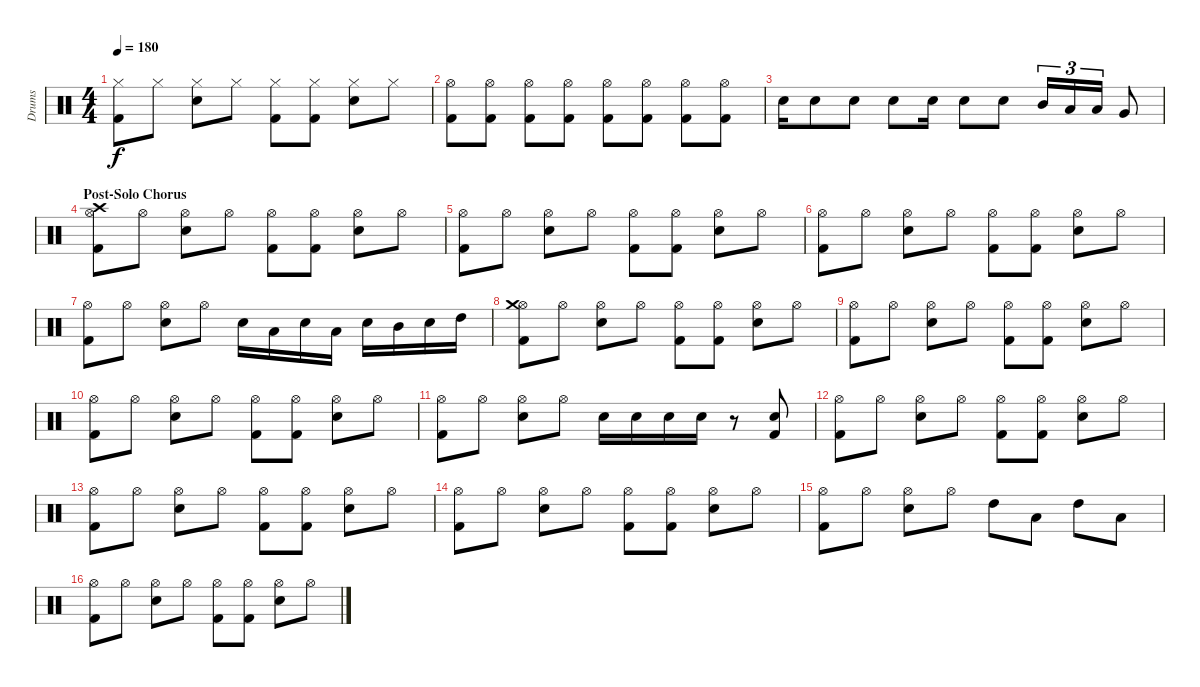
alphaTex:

\track ("Drums" "Drums") {instrument percussion}
\staff {score}
\articulation defaults
\ts (4 4)
\tempo 180
\clef neutral
\ks c
("Hi-Hat (closed)" "Kick (hit) 2").8{dy f} "Hi-Hat (closed)".8 ("Hi-Hat (closed)" "Snare (hit) 2").8 "Hi-Hat (closed)".8 ("Hi-Hat (closed)" "Kick (hit) 2").8 ("Hi-Hat (closed)" "Kick (hit) 2").8 ("Hi-Hat (closed)" "Snare (hit) 2").8 "Hi-Hat (closed)".8 |
("Hi-Hat (open)" "Kick (hit) 2").8 ("Hi-Hat (open)" "Kick (hit) 2").8 ("Hi-Hat (open)" "Kick (hit) 2").8 ("Hi-Hat (open)" "Kick (hit) 2").8 ("Hi-Hat (open)" "Kick (hit) 2").8 ("Hi-Hat (open)" "Kick (hit) 2").8 ("Hi-Hat (open)" "Kick (hit) 2").8 ("Hi-Hat (open)" "Kick (hit) 2").8 |
"Snare (hit) 2".16 "Snare (hit) 2".8 "Snare (hit) 2".8 "Snare (hit) 2".8 "Snare (hit) 2".16 "Snare (hit) 2".8 "Snare (hit) 2".8 "Mid Tom (hit)".16{tu (3 2)} "Low Tom (hit)".16{tu (3 2)} "Low Tom (hit)".16{tu (3 2)} "Very Low Tom (hit)".8 |
\section ("" "Post-Solo Chorus")
("Hi-Hat (open)" "Crash high (hit)" "Kick (hit) 2").8 "Hi-Hat (open)".8 ("Hi-Hat (open)" "Snare (hit) 2").8 "Hi-Hat (open)".8 ("Hi-Hat (open)" "Kick (hit) 2").8 ("Hi-Hat (open)" "Kick (hit) 2").8 ("Hi-Hat (open)" "Snare (hit) 2").8 "Hi-Hat (open)".8 |
("Hi-Hat (open)" "Kick (hit) 2").8 "Hi-Hat (open)".8 ("Hi-Hat (open)" "Snare (hit) 2").8 "Hi-Hat (open)".8 ("Hi-Hat (open)" "Kick (hit) 2").8 ("Hi-Hat (open)" "Kick (hit) 2").8 ("Hi-Hat (open)" "Snare (hit) 2").8 "Hi-Hat (open)".8 |
("Hi-Hat (open)" "Kick (hit) 2").8 "Hi-Hat (open)".8 ("Hi-Hat (open)" "Snare (hit) 2").8 "Hi-Hat (open)".8 ("Hi-Hat (open)" "Kick (hit) 2").8 ("Hi-Hat (open)" "Kick (hit) 2").8 ("Hi-Hat (open)" "Snare (hit) 2").8 "Hi-Hat (open)".8 |
("Hi-Hat (open)" "Kick (hit) 2").8 "Hi-Hat (open)".8 ("Hi-Hat (open)" "Snare (hit) 2").8 "Hi-Hat (open)".8 "Snare (hit) 2".16 "Low Floor Tom (hit)".16 "Snare (hit) 2".16 "Low Tom (hit)".16 "Snare (hit) 2".16 "Mid Tom (hit)".16 "Snare (hit) 2".16 "High Tom (hit)".16 |
("Hi-Hat (open)" "Crash medium (hit)" "Kick (hit) 2").8 "Hi-Hat (open)".8 ("Hi-Hat (open)" "Snare (hit) 2").8 "Hi-Hat (open)".8 ("Hi-Hat (open)" "Kick (hit) 2").8 ("Hi-Hat (open)" "Kick (hit) 2").8 ("Hi-Hat (open)" "Snare (hit) 2").8 "Hi-Hat (open)".8 |
("Hi-Hat (open)" "Kick (hit) 2").8 "Hi-Hat (open)".8 ("Hi-Hat (open)" "Snare (hit) 2").8 "Hi-Hat (open)".8 ("Hi-Hat (open)" "Kick (hit) 2").8 ("Hi-Hat (open)" "Kick (hit) 2").8 ("Hi-Hat (open)" "Snare (hit) 2").8 "Hi-Hat (open)".8 |
("Hi-Hat (open)" "Kick (hit) 2").8 "Hi-Hat (open)".8 ("Hi-Hat (open)" "Snare (hit) 2").8 "Hi-Hat (open)".8 ("Hi-Hat (open)" "Kick (hit) 2").8 ("Hi-Hat (open)" "Kick (hit) 2").8 ("Hi-Hat (open)" "Snare (hit) 2").8 "Hi-Hat (open)".8 |
("Hi-Hat (open)" "Kick (hit) 2").8 "Hi-Hat (open)".8 ("Hi-Hat (open)" "Snare (hit) 2").8 "Hi-Hat (open)".8 "Snare (hit) 2".16 "Snare (hit) 2".16 "Snare (hit) 2".16 "Snare (hit) 2".16 r.8 ("Snare (hit) 2" "Kick (hit) 2").8 |
("Hi-Hat (open)" "Kick (hit) 2").8 "Hi-Hat (open)".8 ("Hi-Hat (open)" "Snare (hit) 2").8 "Hi-Hat (open)".8 ("Hi-Hat (open)" "Kick (hit) 2").8 ("Hi-Hat (open)" "Kick (hit) 2").8 ("Hi-Hat (open)" "Snare (hit) 2").8 "Hi-Hat (open)".8 |
("Hi-Hat (open)" "Kick (hit) 2").8 "Hi-Hat (open)".8 ("Hi-Hat (open)" "Snare (hit) 2").8 "Hi-Hat (open)".8 ("Hi-Hat (open)" "Kick (hit) 2").8 ("Hi-Hat (open)" "Kick (hit) 2").8 ("Hi-Hat (open)" "Snare (hit) 2").8 "Hi-Hat (open)".8 |
("Hi-Hat (open)" "Kick (hit) 2").8 "Hi-Hat (open)".8 ("Hi-Hat (open)" "Snare (hit) 2").8 "Hi-Hat (open)".8 ("Hi-Hat (open)" "Kick (hit) 2").8 ("Hi-Hat (open)" "Kick (hit) 2").8 ("Hi-Hat (open)" "Snare (hit) 2").8 "Hi-Hat (open)".8 |
("Hi-Hat (open)" "Kick (hit) 2").8 "Hi-Hat (open)".8 ("Hi-Hat (open)" "Snare (hit) 2").8 "Hi-Hat (open)".8 "High Tom (hit)".8 "Low Tom (hit)".8 "High Tom (hit)".8 "Low Tom (hit)".8 |
("Hi-Hat (open)" "Kick (hit) 2").8 "Hi-Hat (open)".8 ("Hi-Hat (open)" "Snare (hit) 2").8 "Hi-Hat (open)".8 ("Hi-Hat (open)" "Kick (hit) 2").8 ("Hi-Hat (open)" "Kick (hit) 2").8 ("Hi-Hat (open)" "Snare (hit) 2").8 "Hi-Hat (open)".8
